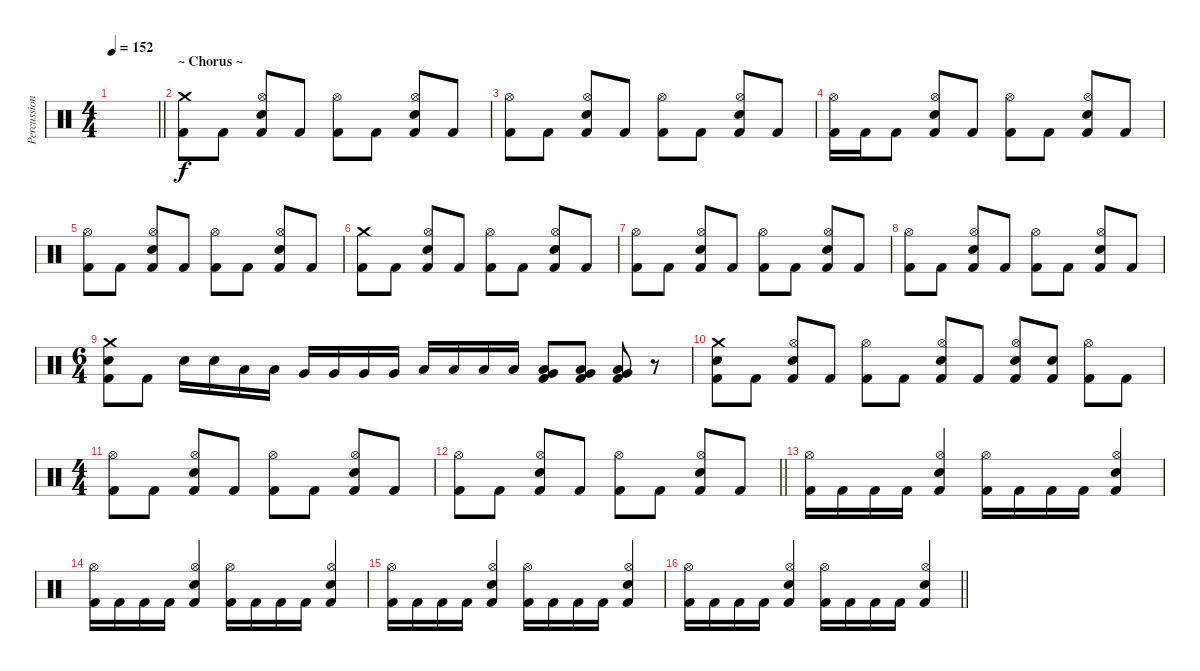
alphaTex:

\track ("Percussion" "Percussion") {instrument percussion}
\staff {score}
\articulation defaults
\ts (4 4)
\tempo 152
\clef neutral
\barLineRight lightlight
\ks c
|
\section ("" "~ Chorus ~")
("Crash medium (hit)" "Kick (hit) 2").8 "Kick (hit) 2".8 ("Hi-Hat (open)" "Electric Snare (hit)" "Kick (hit) 2").8 "Kick (hit) 2".8 ("Hi-Hat (open)" "Kick (hit) 2").8 "Kick (hit) 2".8 ("Hi-Hat (open)" "Electric Snare (hit)" "Kick (hit) 2").8 "Kick (hit) 2".8 |
("Hi-Hat (open)" "Kick (hit) 2").8 "Kick (hit) 2".8 ("Hi-Hat (open)" "Electric Snare (hit)" "Kick (hit) 2").8 "Kick (hit) 2".8 ("Hi-Hat (open)" "Kick (hit) 2").8 "Kick (hit) 2".8 ("Hi-Hat (open)" "Electric Snare (hit)" "Kick (hit) 2").8 "Kick (hit) 2".8 |
("Hi-Hat (open)" "Kick (hit) 2").16 "Kick (hit) 2".16 "Kick (hit) 2".8 ("Hi-Hat (open)" "Electric Snare (hit)" "Kick (hit) 2").8 "Kick (hit) 2".8 ("Hi-Hat (open)" "Kick (hit) 2").8 "Kick (hit) 2".8 ("Hi-Hat (open)" "Electric Snare (hit)" "Kick (hit) 2").8 "Kick (hit) 2".8 |
("Hi-Hat (open)" "Kick (hit) 2").8 "Kick (hit) 2".8 ("Hi-Hat (open)" "Electric Snare (hit)" "Kick (hit) 2").8 "Kick (hit) 2".8 ("Hi-Hat (open)" "Kick (hit) 2").8 "Kick (hit) 2".8 ("Hi-Hat (open)" "Electric Snare (hit)" "Kick (hit) 2").8 "Kick (hit) 2".8 |
("Crash medium (hit)" "Kick (hit) 2").8 "Kick (hit) 2".8 ("Hi-Hat (open)" "Electric Snare (hit)" "Kick (hit) 2").8 "Kick (hit) 2".8 ("Hi-Hat (open)" "Kick (hit) 2").8 "Kick (hit) 2".8 ("Hi-Hat (open)" "Electric Snare (hit)" "Kick (hit) 2").8 "Kick (hit) 2".8 |
("Hi-Hat (open)" "Kick (hit) 2").8 "Kick (hit) 2".8 ("Hi-Hat (open)" "Electric Snare (hit)" "Kick (hit) 2").8 "Kick (hit) 2".8 ("Hi-Hat (open)" "Kick (hit) 2").8 "Kick (hit) 2".8 ("Hi-Hat (open)" "Electric Snare (hit)" "Kick (hit) 2").8 "Kick (hit) 2".8 |
("Hi-Hat (open)" "Kick (hit) 2").8 "Kick (hit) 2".8 ("Hi-Hat (open)" "Electric Snare (hit)" "Kick (hit) 2").8 "Kick (hit) 2".8 ("Hi-Hat (open)" "Kick (hit) 2").8 "Kick (hit) 2".8 ("Hi-Hat (open)" "Electric Snare (hit)" "Kick (hit) 2").8 "Kick (hit) 2".8 |
\ts (6 4)
("Crash medium (hit)" "Electric Snare (hit)" "Kick (hit) 2").8 "Kick (hit) 2".8 "Electric Snare (hit)".16 "Electric Snare (hit)".16 "Low Tom (hit)".16 "Low Tom (hit)".16 "Very Low Tom (hit)".16 "Very Low Tom (hit)".16 "Very Low Tom (hit)".16 "Very Low Tom (hit)".16 "Low Floor Tom (hit)".16 "Low Floor Tom (hit)".16 "Low Floor Tom (hit)".16 "Low Floor Tom (hit)".16 ("Low Floor Tom (hit)" "Very Low Tom (hit)" "Kick (hit) 2").8 ("Low Floor Tom (hit)" "Very Low Tom (hit)" "Kick (hit) 2").8 ("Very Low Tom (hit)" "Low Floor Tom (hit)" "Kick (hit) 2").8 r.8 |
("Crash medium (hit)" "Electric Snare (hit)" "Kick (hit) 2").8 "Kick (hit) 2".8 ("Hi-Hat (open)" "Electric Snare (hit)" "Kick (hit) 2").8 "Kick (hit) 2".8 ("Hi-Hat (open)" "Kick (hit) 2").8 "Kick (hit) 2".8 ("Hi-Hat (open)" "Electric Snare (hit)" "Kick (hit) 2").8 "Kick (hit) 2".8 ("Hi-Hat (open)" "Electric Snare (hit)" "Kick (hit) 2").8 ("Electric Snare (hit)" "Kick (hit) 2").8 ("Hi-Hat (open)" "Kick (hit) 2").8 "Kick (hit) 2".8 |
\ts (4 4)
("Hi-Hat (open)" "Kick (hit) 2").8 "Kick (hit) 2".8 ("Hi-Hat (open)" "Electric Snare (hit)" "Kick (hit) 2").8 "Kick (hit) 2".8 ("Hi-Hat (open)" "Kick (hit) 2").8 "Kick (hit) 2".8 ("Hi-Hat (open)" "Electric Snare (hit)" "Kick (hit) 2").8 "Kick (hit) 2".8 |
\barLineRight lightlight
("Hi-Hat (open)" "Kick (hit) 2").8 "Kick (hit) 2".8 ("Hi-Hat (open)" "Electric Snare (hit)" "Kick (hit) 2").8 "Kick (hit) 2".8 ("Hi-Hat (open)" "Kick (hit) 2").8 "Kick (hit) 2".8 ("Hi-Hat (open)" "Electric Snare (hit)" "Kick (hit) 2").8 "Kick (hit) 2".8 |
("Hi-Hat (open)" "Kick (hit) 2").16 "Kick (hit) 2".16 "Kick (hit) 2".16 "Kick (hit) 2".16 ("Hi-Hat (open)" "Electric Snare (hit)" "Kick (hit) 2").4 ("Hi-Hat (open)" "Kick (hit) 2").16 "Kick (hit) 2".16 "Kick (hit) 2".16 "Kick (hit) 2".16 ("Hi-Hat (open)" "Electric Snare (hit)" "Kick (hit) 2").4 |
("Hi-Hat (open)" "Kick (hit) 2").16 "Kick (hit) 2".16 "Kick (hit) 2".16 "Kick (hit) 2".16 ("Hi-Hat (open)" "Electric Snare (hit)" "Kick (hit) 2").4 ("Hi-Hat (open)" "Kick (hit) 2").16 "Kick (hit) 2".16 "Kick (hit) 2".16 "Kick (hit) 2".16 ("Hi-Hat (open)" "Electric Snare (hit)" "Kick (hit) 2").4 |
("Hi-Hat (open)" "Kick (hit) 2").16 "Kick (hit) 2".16 "Kick (hit) 2".16 "Kick (hit) 2".16 ("Hi-Hat (open)" "Electric Snare (hit)" "Kick (hit) 2").4 ("Hi-Hat (open)" "Kick (hit) 2").16 "Kick (hit) 2".16 "Kick (hit) 2".16 "Kick (hit) 2".16 ("Hi-Hat (open)" "Electric Snare (hit)" "Kick (hit) 2").4 |
\barLineRight lightlight
("Hi-Hat (open)" "Kick (hit) 2").16 "Kick (hit) 2".16 "Kick (hit) 2".16 "Kick (hit) 2".16 ("Hi-Hat (open)" "Electric Snare (hit)" "Kick (hit) 2").4 ("Hi-Hat (open)" "Kick (hit) 2").16 "Kick (hit) 2".16 "Kick (hit) 2".16 "Kick (hit) 2".16 ("Hi-Hat (open)" "Electric Snare (hit)" "Kick (hit) 2").4
